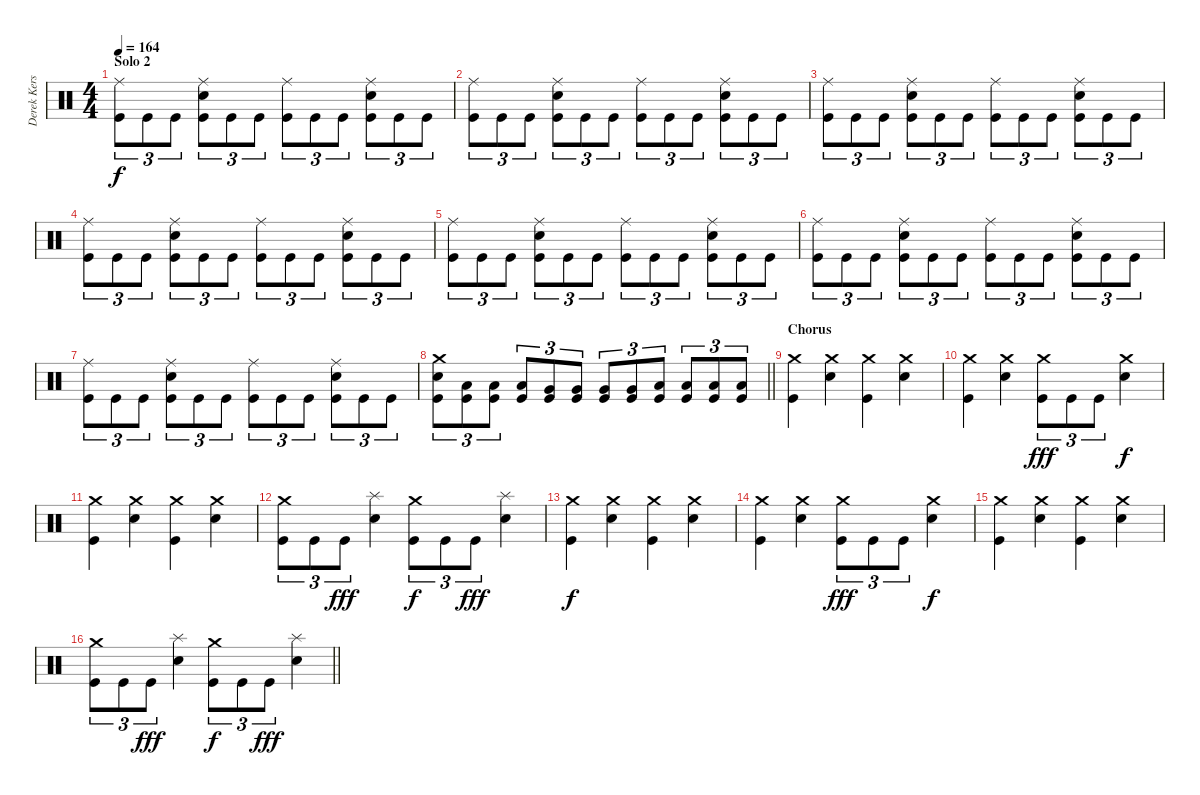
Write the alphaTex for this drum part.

\track ("Derek Kerswill" "Derek Kers") {instrument percussion}
\staff {score}
\articulation defaults
\ts (4 4)
\section ("" "Solo 2")
\tempo 164
\clef neutral
\ks c
("Ride (middle)" "Kick (hit)").8{tu (3 2) dy f} "Kick (hit)".8{tu (3 2)} "Kick (hit)".8{tu (3 2)} ("Snare (hit) 2" "Ride (middle)" "Kick (hit)").8{tu (3 2)} "Kick (hit)".8{tu (3 2)} "Kick (hit)".8{tu (3 2)} ("Ride (middle)" "Kick (hit)").8{tu (3 2)} "Kick (hit)".8{tu (3 2)} "Kick (hit)".8{tu (3 2)} ("Snare (hit) 2" "Ride (middle)" "Kick (hit)").8{tu (3 2)} "Kick (hit)".8{tu (3 2)} "Kick (hit)".8{tu (3 2)} |
("Ride (middle)" "Kick (hit)").8{tu (3 2)} "Kick (hit)".8{tu (3 2)} "Kick (hit)".8{tu (3 2)} ("Snare (hit) 2" "Ride (middle)" "Kick (hit)").8{tu (3 2)} "Kick (hit)".8{tu (3 2)} "Kick (hit)".8{tu (3 2)} ("Ride (middle)" "Kick (hit)").8{tu (3 2)} "Kick (hit)".8{tu (3 2)} "Kick (hit)".8{tu (3 2)} ("Snare (hit) 2" "Ride (middle)" "Kick (hit)").8{tu (3 2)} "Kick (hit)".8{tu (3 2)} "Kick (hit)".8{tu (3 2)} |
("Ride (middle)" "Kick (hit)").8{tu (3 2)} "Kick (hit)".8{tu (3 2)} "Kick (hit)".8{tu (3 2)} ("Snare (hit) 2" "Ride (middle)" "Kick (hit)").8{tu (3 2)} "Kick (hit)".8{tu (3 2)} "Kick (hit)".8{tu (3 2)} ("Ride (middle)" "Kick (hit)").8{tu (3 2)} "Kick (hit)".8{tu (3 2)} "Kick (hit)".8{tu (3 2)} ("Snare (hit) 2" "Ride (middle)" "Kick (hit)").8{tu (3 2)} "Kick (hit)".8{tu (3 2)} "Kick (hit)".8{tu (3 2)} |
("Ride (middle)" "Kick (hit)").8{tu (3 2)} "Kick (hit)".8{tu (3 2)} "Kick (hit)".8{tu (3 2)} ("Snare (hit) 2" "Ride (middle)" "Kick (hit)").8{tu (3 2)} "Kick (hit)".8{tu (3 2)} "Kick (hit)".8{tu (3 2)} ("Ride (middle)" "Kick (hit)").8{tu (3 2)} "Kick (hit)".8{tu (3 2)} "Kick (hit)".8{tu (3 2)} ("Snare (hit) 2" "Ride (middle)" "Kick (hit)").8{tu (3 2)} "Kick (hit)".8{tu (3 2)} "Kick (hit)".8{tu (3 2)} |
("Ride (middle)" "Kick (hit)").8{tu (3 2)} "Kick (hit)".8{tu (3 2)} "Kick (hit)".8{tu (3 2)} ("Snare (hit) 2" "Ride (middle)" "Kick (hit)").8{tu (3 2)} "Kick (hit)".8{tu (3 2)} "Kick (hit)".8{tu (3 2)} ("Ride (middle)" "Kick (hit)").8{tu (3 2)} "Kick (hit)".8{tu (3 2)} "Kick (hit)".8{tu (3 2)} ("Snare (hit) 2" "Ride (middle)" "Kick (hit)").8{tu (3 2)} "Kick (hit)".8{tu (3 2)} "Kick (hit)".8{tu (3 2)} |
("Ride (middle)" "Kick (hit)").8{tu (3 2)} "Kick (hit)".8{tu (3 2)} "Kick (hit)".8{tu (3 2)} ("Snare (hit) 2" "Ride (middle)" "Kick (hit)").8{tu (3 2)} "Kick (hit)".8{tu (3 2)} "Kick (hit)".8{tu (3 2)} ("Ride (middle)" "Kick (hit)").8{tu (3 2)} "Kick (hit)".8{tu (3 2)} "Kick (hit)".8{tu (3 2)} ("Snare (hit) 2" "Ride (middle)" "Kick (hit)").8{tu (3 2)} "Kick (hit)".8{tu (3 2)} "Kick (hit)".8{tu (3 2)} |
("Ride (middle)" "Kick (hit)").8{tu (3 2)} "Kick (hit)".8{tu (3 2)} "Kick (hit)".8{tu (3 2)} ("Snare (hit) 2" "Ride (middle)" "Kick (hit)").8{tu (3 2)} "Kick (hit)".8{tu (3 2)} "Kick (hit)".8{tu (3 2)} ("Ride (middle)" "Kick (hit)").8{tu (3 2)} "Kick (hit)".8{tu (3 2)} "Kick (hit)".8{tu (3 2)} ("Snare (hit) 2" "Ride (middle)" "Kick (hit)").8{tu (3 2)} "Kick (hit)".8{tu (3 2)} "Kick (hit)".8{tu (3 2)} |
\barLineRight lightlight
("Crash medium (hit)" "Snare (hit) 2" "Kick (hit)").8{tu (3 2)} ("Low Tom (hit)" "Kick (hit)").8{tu (3 2)} ("Low Tom (hit)" "Kick (hit)").8{tu (3 2)} ("Low Tom (hit)" "Kick (hit)").8{tu (3 2)} ("Very Low Tom (hit)" "Kick (hit)").8{tu (3 2)} ("Very Low Tom (hit)" "Kick (hit)").8{tu (3 2)} ("Very Low Tom (hit)" "Kick (hit)").8{tu (3 2)} ("Very Low Tom (hit)" "Kick (hit)").8{tu (3 2)} ("Low Floor Tom (hit)" "Kick (hit)").8{tu (3 2)} ("Low Floor Tom (hit)" "Kick (hit)").8{tu (3 2)} ("Low Floor Tom (hit)" "Kick (hit)").8{tu (3 2)} ("Low Floor Tom (hit)" "Kick (hit)").8{tu (3 2)} |
\section ("" "Chorus")
("Crash medium (hit)" "Kick (hit)").4 ("Crash medium (hit)" "Snare (hit) 2").4 ("Crash medium (hit)" "Kick (hit)").4 ("Crash medium (hit)" "Snare (hit) 2").4 |
("Crash medium (hit)" "Kick (hit)").4 ("Crash medium (hit)" "Snare (hit) 2").4 ("Crash medium (hit)" "Kick (hit)").8{tu (3 2) dy fff} "Kick (hit)".8{tu (3 2)} "Kick (hit)".8{tu (3 2)} ("Crash medium (hit)" "Snare (hit) 2").4{dy f} |
("Crash medium (hit)" "Kick (hit)").4 ("Crash medium (hit)" "Snare (hit) 2").4 ("Crash medium (hit)" "Kick (hit)").4 ("Crash medium (hit)" "Snare (hit) 2").4 |
("Crash medium (hit)" "Kick (hit)").8{tu (3 2)} "Kick (hit)".8{tu (3 2)} "Kick (hit)".8{tu (3 2) dy fff} ("Splash (hit)" "Snare (hit) 2").4 ("Crash medium (hit)" "Kick (hit)").8{tu (3 2) dy f} "Kick (hit)".8{tu (3 2)} "Kick (hit)".8{tu (3 2) dy fff} ("Splash (hit)" "Snare (hit) 2").4 |
("Crash medium (hit)" "Kick (hit)").4{dy f} ("Crash medium (hit)" "Snare (hit) 2").4 ("Crash medium (hit)" "Kick (hit)").4 ("Crash medium (hit)" "Snare (hit) 2").4 |
("Crash medium (hit)" "Kick (hit)").4 ("Crash medium (hit)" "Snare (hit) 2").4 ("Crash medium (hit)" "Kick (hit)").8{tu (3 2) dy fff} "Kick (hit)".8{tu (3 2)} "Kick (hit)".8{tu (3 2)} ("Crash medium (hit)" "Snare (hit) 2").4{dy f} |
("Crash medium (hit)" "Kick (hit)").4 ("Crash medium (hit)" "Snare (hit) 2").4 ("Crash medium (hit)" "Kick (hit)").4 ("Crash medium (hit)" "Snare (hit) 2").4 |
\barLineRight lightlight
("Crash medium (hit)" "Kick (hit)").8{tu (3 2)} "Kick (hit)".8{tu (3 2)} "Kick (hit)".8{tu (3 2) dy fff} ("Splash (hit)" "Snare (hit) 2").4 ("Crash medium (hit)" "Kick (hit)").8{tu (3 2) dy f} "Kick (hit)".8{tu (3 2)} "Kick (hit)".8{tu (3 2) dy fff} ("Splash (hit)" "Snare (hit) 2").4
